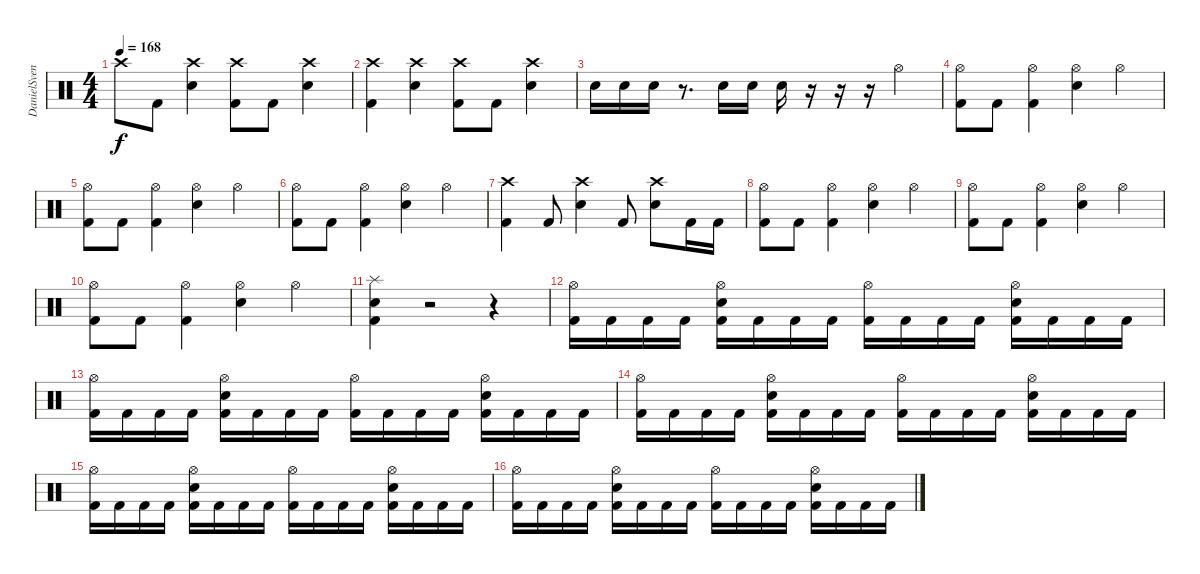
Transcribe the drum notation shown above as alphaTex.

\track ("DanielSvensson" "DanielSven") {instrument percussion}
\staff {score}
\articulation defaults
\ts (4 4)
\tempo 168
\clef neutral
\ks c "Crash high (hit)".8{dy f} "Kick (hit) 2".8
("Crash high (hit)" "Electric Snare (hit)").4 ("Crash high (hit)" "Kick (hit) 2").8 "Kick (hit) 2".8 ("Crash high (hit)" "Electric Snare (hit)").4 |
("Crash high (hit)" "Kick (hit) 2").4 ("Crash high (hit)" "Electric Snare (hit)").4 ("Crash high (hit)" "Kick (hit) 2").8 "Kick (hit) 2".8 ("Crash high (hit)" "Electric Snare (hit)").4 |
"Electric Snare (hit)".16 "Electric Snare (hit)".16 "Electric Snare (hit)".16 r.8{d} "Electric Snare (hit)".16 "Electric Snare (hit)".16 "Electric Snare (hit)".16 r.16 r.16 r.16 "Hi-Hat (open)".4 |
("Hi-Hat (open)" "Kick (hit) 2").8 "Kick (hit) 2".8 ("Hi-Hat (open)" "Kick (hit) 2").4 ("Hi-Hat (open)" "Electric Snare (hit)").4 "Hi-Hat (open)".4 |
("Hi-Hat (open)" "Kick (hit) 2").8 "Kick (hit) 2".8 ("Hi-Hat (open)" "Kick (hit) 2").4 ("Hi-Hat (open)" "Electric Snare (hit)").4 "Hi-Hat (open)".4 |
("Hi-Hat (open)" "Kick (hit) 2").8 "Kick (hit) 2".8 ("Hi-Hat (open)" "Kick (hit) 2").4 ("Hi-Hat (open)" "Electric Snare (hit)").4 "Hi-Hat (open)".4 |
("Crash high (hit)" "Kick (hit) 2").4 "Kick (hit) 2".8 ("Crash high (hit)" "Electric Snare (hit)").4 "Kick (hit) 2".8 ("Crash high (hit)" "Electric Snare (hit)").8 "Kick (hit) 2".16 "Kick (hit) 2".16 |
("Hi-Hat (open)" "Kick (hit) 2").8 "Kick (hit) 2".8 ("Hi-Hat (open)" "Kick (hit) 2").4 ("Hi-Hat (open)" "Electric Snare (hit)").4 "Hi-Hat (open)".4 |
("Hi-Hat (open)" "Kick (hit) 2").8 "Kick (hit) 2".8 ("Hi-Hat (open)" "Kick (hit) 2").4 ("Hi-Hat (open)" "Electric Snare (hit)").4 "Hi-Hat (open)".4 |
("Hi-Hat (open)" "Kick (hit) 2").8 "Kick (hit) 2".8 ("Hi-Hat (open)" "Kick (hit) 2").4 ("Hi-Hat (open)" "Electric Snare (hit)").4 "Hi-Hat (open)".4 |
("Splash (hit)" "Electric Snare (hit)" "Kick (hit) 2").4 r.2 r.4 |
("Hi-Hat (open)" "Kick (hit) 2").16 "Kick (hit) 2".16 "Kick (hit) 2".16 "Kick (hit) 2".16 ("Hi-Hat (open)" "Electric Snare (hit)" "Kick (hit) 2").16 "Kick (hit) 2".16 "Kick (hit) 2".16 "Kick (hit) 2".16 ("Hi-Hat (open)" "Kick (hit) 2").16 "Kick (hit) 2".16 "Kick (hit) 2".16 "Kick (hit) 2".16 ("Hi-Hat (open)" "Electric Snare (hit)" "Kick (hit) 2").16 "Kick (hit) 2".16 "Kick (hit) 2".16 "Kick (hit) 2".16 |
("Hi-Hat (open)" "Kick (hit) 2").16 "Kick (hit) 2".16 "Kick (hit) 2".16 "Kick (hit) 2".16 ("Hi-Hat (open)" "Electric Snare (hit)" "Kick (hit) 2").16 "Kick (hit) 2".16 "Kick (hit) 2".16 "Kick (hit) 2".16 ("Hi-Hat (open)" "Kick (hit) 2").16 "Kick (hit) 2".16 "Kick (hit) 2".16 "Kick (hit) 2".16 ("Hi-Hat (open)" "Electric Snare (hit)" "Kick (hit) 2").16 "Kick (hit) 2".16 "Kick (hit) 2".16 "Kick (hit) 2".16 |
("Hi-Hat (open)" "Kick (hit) 2").16 "Kick (hit) 2".16 "Kick (hit) 2".16 "Kick (hit) 2".16 ("Hi-Hat (open)" "Electric Snare (hit)" "Kick (hit) 2").16 "Kick (hit) 2".16 "Kick (hit) 2".16 "Kick (hit) 2".16 ("Hi-Hat (open)" "Kick (hit) 2").16 "Kick (hit) 2".16 "Kick (hit) 2".16 "Kick (hit) 2".16 ("Hi-Hat (open)" "Electric Snare (hit)" "Kick (hit) 2").16 "Kick (hit) 2".16 "Kick (hit) 2".16 "Kick (hit) 2".16 |
("Hi-Hat (open)" "Kick (hit) 2").16 "Kick (hit) 2".16 "Kick (hit) 2".16 "Kick (hit) 2".16 ("Hi-Hat (open)" "Electric Snare (hit)" "Kick (hit) 2").16 "Kick (hit) 2".16 "Kick (hit) 2".16 "Kick (hit) 2".16 ("Hi-Hat (open)" "Kick (hit) 2").16 "Kick (hit) 2".16 "Kick (hit) 2".16 "Kick (hit) 2".16 ("Hi-Hat (open)" "Electric Snare (hit)" "Kick (hit) 2").16 "Kick (hit) 2".16 "Kick (hit) 2".16 "Kick (hit) 2".16 |
("Hi-Hat (open)" "Kick (hit) 2").16 "Kick (hit) 2".16 "Kick (hit) 2".16 "Kick (hit) 2".16 ("Hi-Hat (open)" "Electric Snare (hit)" "Kick (hit) 2").16 "Kick (hit) 2".16 "Kick (hit) 2".16 "Kick (hit) 2".16 ("Hi-Hat (open)" "Kick (hit) 2").16 "Kick (hit) 2".16 "Kick (hit) 2".16 "Kick (hit) 2".16 ("Hi-Hat (open)" "Electric Snare (hit)" "Kick (hit) 2").16 "Kick (hit) 2".16 "Kick (hit) 2".16 "Kick (hit) 2".16
